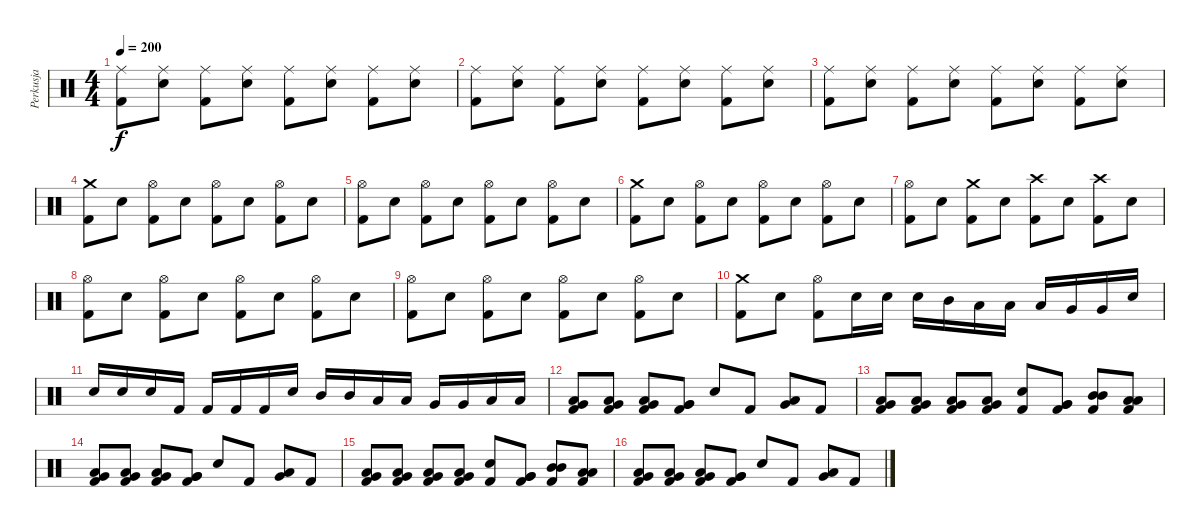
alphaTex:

\track ("Perkusja" "Perkusja") {instrument percussion}
\staff {score}
\articulation defaults
\ts (4 4)
\tempo 200
\clef neutral
\ks c
("Ride (middle)" "Kick (hit) 2").8{dy f} ("Ride (middle)" "Snare (hit) 2").8 ("Ride (middle)" "Kick (hit) 2").8 ("Ride (middle)" "Snare (hit) 2").8 ("Ride (middle)" "Kick (hit) 2").8 ("Ride (middle)" "Snare (hit) 2").8 ("Ride (middle)" "Kick (hit) 2").8 ("Ride (middle)" "Snare (hit) 2").8 |
("Ride (middle)" "Kick (hit) 2").8 ("Ride (middle)" "Snare (hit) 2").8 ("Ride (middle)" "Kick (hit) 2").8 ("Ride (middle)" "Snare (hit) 2").8 ("Ride (middle)" "Kick (hit) 2").8 ("Ride (middle)" "Snare (hit) 2").8 ("Ride (middle)" "Kick (hit) 2").8 ("Ride (middle)" "Snare (hit) 2").8 |
("Ride (middle)" "Kick (hit) 2").8 ("Ride (middle)" "Snare (hit) 2").8 ("Ride (middle)" "Kick (hit) 2").8 ("Ride (middle)" "Snare (hit) 2").8 ("Ride (middle)" "Kick (hit) 2").8 ("Ride (middle)" "Snare (hit) 2").8 ("Ride (middle)" "Kick (hit) 2").8 ("Ride (middle)" "Snare (hit) 2").8 |
("Crash medium (hit)" "Kick (hit) 2").8 "Snare (hit) 2".8 ("Hi-Hat (open)" "Kick (hit) 2").8 "Snare (hit) 2".8 ("Hi-Hat (open)" "Kick (hit) 2").8 "Snare (hit) 2".8 ("Hi-Hat (open)" "Kick (hit) 2").8 "Snare (hit) 2".8 |
("Hi-Hat (open)" "Kick (hit) 2").8 "Snare (hit) 2".8 ("Hi-Hat (open)" "Kick (hit) 2").8 "Snare (hit) 2".8 ("Hi-Hat (open)" "Kick (hit) 2").8 "Snare (hit) 2".8 ("Hi-Hat (open)" "Kick (hit) 2").8 "Snare (hit) 2".8 |
("Crash medium (hit)" "Kick (hit) 2").8 "Snare (hit) 2".8 ("Hi-Hat (open)" "Kick (hit) 2").8 "Snare (hit) 2".8 ("Hi-Hat (open)" "Kick (hit) 2").8 "Snare (hit) 2".8 ("Hi-Hat (open)" "Kick (hit) 2").8 "Snare (hit) 2".8 |
("Hi-Hat (open)" "Kick (hit) 2").8 "Snare (hit) 2".8 ("Crash medium (hit)" "Kick (hit) 2").8 "Snare (hit) 2".8 ("Crash high (hit)" "Kick (hit) 2").8 "Snare (hit) 2".8 ("Crash high (hit)" "Kick (hit) 2").8 "Snare (hit) 2".8 |
("Hi-Hat (open)" "Kick (hit) 2").8 "Snare (hit) 2".8 ("Hi-Hat (open)" "Kick (hit) 2").8 "Snare (hit) 2".8 ("Hi-Hat (open)" "Kick (hit) 2").8 "Snare (hit) 2".8 ("Hi-Hat (open)" "Kick (hit) 2").8 "Snare (hit) 2".8 |
("Hi-Hat (open)" "Kick (hit) 2").8 "Snare (hit) 2".8 ("Hi-Hat (open)" "Kick (hit) 2").8 "Snare (hit) 2".8 ("Hi-Hat (open)" "Kick (hit) 2").8 "Snare (hit) 2".8 ("Hi-Hat (open)" "Kick (hit) 2").8 "Snare (hit) 2".8 |
("Crash medium (hit)" "Kick (hit) 2").8 "Snare (hit) 2".8 ("Hi-Hat (open)" "Kick (hit) 2").8 "Snare (hit) 2".16 "Snare (hit) 2".16 "Snare (hit) 2".16 "Mid Tom (hit)".16 "Low Tom (hit)".16 "Low Tom (hit)".16 "Low Tom (hit)".16 "Very Low Tom (hit)".16 "Very Low Tom (hit)".16 "Snare (hit) 2".16 |
"Snare (hit) 2".16 "Snare (hit) 2".16 "Snare (hit) 2".16 "Kick (hit) 2".16 "Kick (hit) 2".16 "Kick (hit) 2".16 "Kick (hit) 2".16 "Snare (hit) 2".16 "Mid Tom (hit)".16 "Mid Tom (hit)".16 "Low Tom (hit)".16 "Low Tom (hit)".16 "Very Low Tom (hit)".16 "Very Low Tom (hit)".16 "Low Floor Tom (hit)".16 "Low Floor Tom (hit)".16 |
("Very Low Tom (hit)" "Low Tom (hit)" "Kick (hit) 2").8 ("Very Low Tom (hit)" "Low Tom (hit)" "Kick (hit) 2").8 ("Very Low Tom (hit)" "Low Tom (hit)" "Kick (hit) 2").8 ("Very Low Tom (hit)" "Very Low Tom (hit)" "Kick (hit) 2").8 "Snare (hit) 2".8 "Kick (hit) 2".8 ("Low Tom (hit)" "Very Low Tom (hit)").8 "Kick (hit) 2".8 |
("Very Low Tom (hit)" "Low Floor Tom (hit)" "Kick (hit) 2").8 ("Very Low Tom (hit)" "Low Floor Tom (hit)" "Kick (hit) 2").8 ("Very Low Tom (hit)" "Low Floor Tom (hit)" "Kick (hit) 2").8 ("Very Low Tom (hit)" "Low Floor Tom (hit)" "Kick (hit) 2").8 ("Snare (hit) 2" "Kick (hit) 2").8 ("Very Low Tom (hit)" "Very Low Tom (hit)" "Kick (hit) 2").8 ("Mid Tom (hit)" "Mid Tom (hit)" "Kick (hit) 2").8 ("Low Tom (hit)" "Low Tom (hit)" "Kick (hit) 2").8 |
("Very Low Tom (hit)" "Low Tom (hit)" "Kick (hit) 2").8 ("Very Low Tom (hit)" "Low Tom (hit)" "Kick (hit) 2").8 ("Very Low Tom (hit)" "Low Tom (hit)" "Kick (hit) 2").8 ("Very Low Tom (hit)" "Very Low Tom (hit)" "Kick (hit) 2").8 "Snare (hit) 2".8 "Kick (hit) 2".8 ("Low Tom (hit)" "Very Low Tom (hit)").8 "Kick (hit) 2".8 |
("Very Low Tom (hit)" "Low Floor Tom (hit)" "Kick (hit) 2").8 ("Very Low Tom (hit)" "Low Floor Tom (hit)" "Kick (hit) 2").8 ("Very Low Tom (hit)" "Low Floor Tom (hit)" "Kick (hit) 2").8 ("Very Low Tom (hit)" "Low Floor Tom (hit)" "Kick (hit) 2").8 ("Snare (hit) 2" "Kick (hit) 2").8 ("Very Low Tom (hit)" "Very Low Tom (hit)" "Kick (hit) 2").8 ("Mid Tom (hit)" "Mid Tom (hit)" "Kick (hit) 2").8 ("Low Tom (hit)" "Low Tom (hit)" "Kick (hit) 2").8 |
("Very Low Tom (hit)" "Low Tom (hit)" "Kick (hit) 2").8 ("Very Low Tom (hit)" "Low Tom (hit)" "Kick (hit) 2").8 ("Very Low Tom (hit)" "Low Tom (hit)" "Kick (hit) 2").8 ("Very Low Tom (hit)" "Very Low Tom (hit)" "Kick (hit) 2").8 "Snare (hit) 2".8 "Kick (hit) 2".8 ("Low Tom (hit)" "Very Low Tom (hit)").8 "Kick (hit) 2".8
